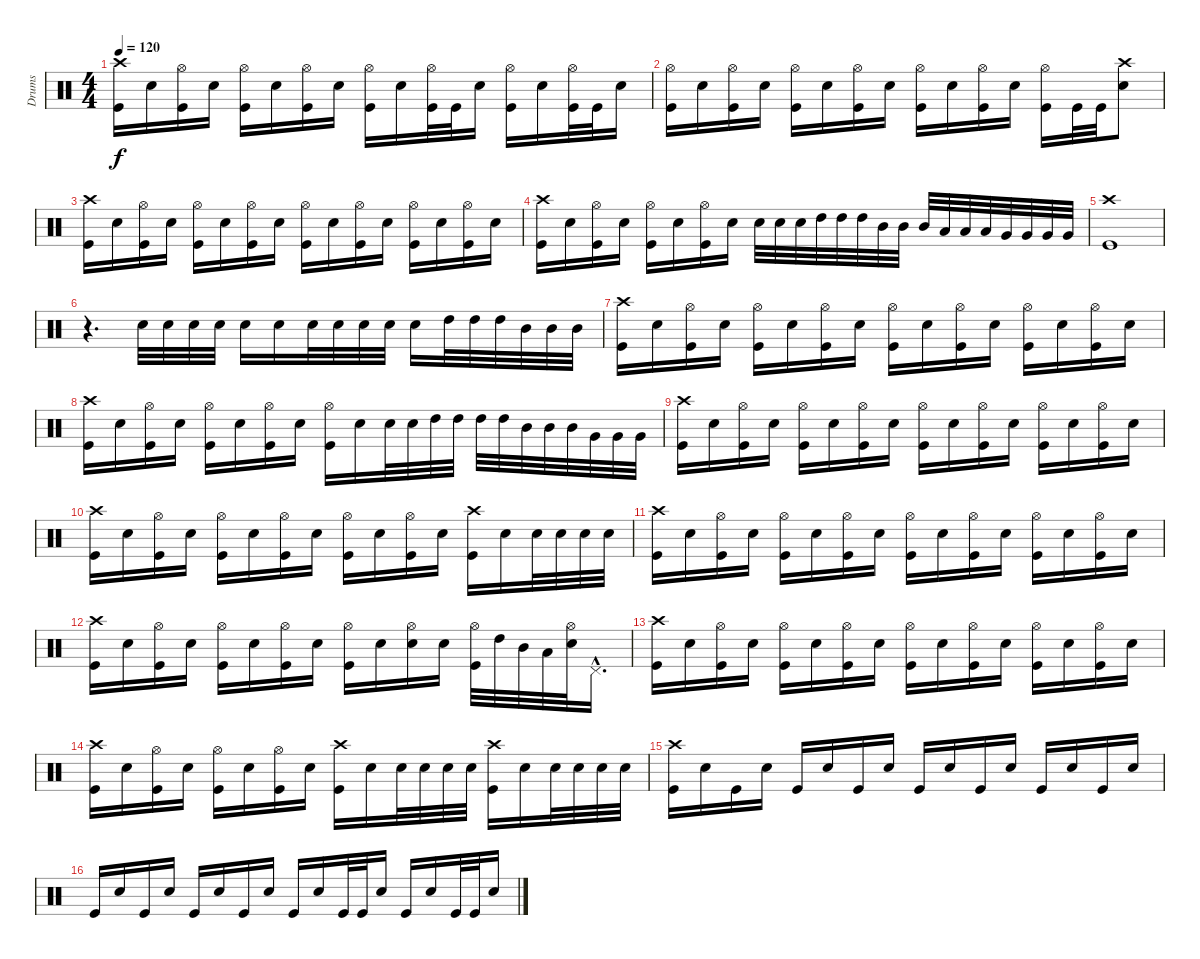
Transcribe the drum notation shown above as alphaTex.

\track ("Drums" "Drums") {instrument percussion}
\staff {score}
\articulation defaults
\ts (4 4)
\tempo 120
\clef neutral
\ks c
("Crash high (hit)" "Kick (hit)").16{dy f} "Electric Snare (hit)".16 ("Hi-Hat (open)" "Kick (hit)").16 "Electric Snare (hit)".16 ("Hi-Hat (open)" "Kick (hit)").16 "Electric Snare (hit)".16 ("Hi-Hat (open)" "Kick (hit)").16 "Electric Snare (hit)".16 ("Hi-Hat (open)" "Kick (hit)").16 "Electric Snare (hit)".16 ("Hi-Hat (open)" "Kick (hit)").32 "Kick (hit)".32 "Electric Snare (hit)".16 ("Hi-Hat (open)" "Kick (hit)").16 "Electric Snare (hit)".16 ("Hi-Hat (open)" "Kick (hit)").32 "Kick (hit)".32 "Electric Snare (hit)".16 |
("Hi-Hat (open)" "Kick (hit)").16 "Electric Snare (hit)".16 ("Hi-Hat (open)" "Kick (hit)").16 "Electric Snare (hit)".16 ("Hi-Hat (open)" "Kick (hit)").16 "Electric Snare (hit)".16 ("Hi-Hat (open)" "Kick (hit)").16 "Electric Snare (hit)".16 ("Hi-Hat (open)" "Kick (hit)").16 "Electric Snare (hit)".16 ("Hi-Hat (open)" "Kick (hit)").16 "Electric Snare (hit)".16 ("Hi-Hat (open)" "Kick (hit)").16 "Kick (hit)".32 "Kick (hit)".32 ("Crash high (hit)" "Electric Snare (hit)").8 |
("Crash high (hit)" "Kick (hit)").16 "Electric Snare (hit)".16 ("Hi-Hat (open)" "Kick (hit)").16 "Electric Snare (hit)".16 ("Hi-Hat (open)" "Kick (hit)").16 "Electric Snare (hit)".16 ("Hi-Hat (open)" "Kick (hit)").16 "Electric Snare (hit)".16 ("Hi-Hat (open)" "Kick (hit)").16 "Electric Snare (hit)".16 ("Hi-Hat (open)" "Kick (hit)").16 "Electric Snare (hit)".16 ("Hi-Hat (open)" "Kick (hit)").16 "Electric Snare (hit)".16 ("Hi-Hat (open)" "Kick (hit)").16 "Electric Snare (hit)".16 |
("Crash high (hit)" "Kick (hit)").16 "Electric Snare (hit)".16 ("Hi-Hat (open)" "Kick (hit)").16 "Electric Snare (hit)".16 ("Hi-Hat (open)" "Kick (hit)").16 "Electric Snare (hit)".16 ("Hi-Hat (open)" "Kick (hit)").16 "Electric Snare (hit)".16 "Electric Snare (hit)".32 "Electric Snare (hit)".32 "Electric Snare (hit)".32 "High Tom (hit)".32 "High Tom (hit)".32 "High Tom (hit)".32 "Mid Tom (hit)".32 "Mid Tom (hit)".32 "Mid Tom (hit)".32 "Low Tom (hit)".32 "Low Tom (hit)".32 "Low Tom (hit)".32 "Very Low Tom (hit)".32 "Very Low Tom (hit)".32 "Very Low Tom (hit)".32 "Very Low Tom (hit)".32 |
("Crash high (hit)" "Kick (hit)").1 |
r.4{d} "Electric Snare (hit)".32 "Electric Snare (hit)".32 "Electric Snare (hit)".32 "Electric Snare (hit)".32 "Electric Snare (hit)".16 "Electric Snare (hit)".16 "Electric Snare (hit)".32 "Electric Snare (hit)".32 "Electric Snare (hit)".32 "Electric Snare (hit)".32 "Electric Snare (hit)".16 "High Tom (hit)".32 "High Tom (hit)".32 "High Tom (hit)".32 "Mid Tom (hit)".32 "Mid Tom (hit)".32 "Mid Tom (hit)".32 |
("Crash high (hit)" "Kick (hit)").16 "Electric Snare (hit)".16 ("Hi-Hat (open)" "Kick (hit)").16 "Electric Snare (hit)".16 ("Hi-Hat (open)" "Kick (hit)").16 "Electric Snare (hit)".16 ("Hi-Hat (open)" "Kick (hit)").16 "Electric Snare (hit)".16 ("Hi-Hat (open)" "Kick (hit)").16 "Electric Snare (hit)".16 ("Hi-Hat (open)" "Kick (hit)").16 "Electric Snare (hit)".16 ("Hi-Hat (open)" "Kick (hit)").16 "Electric Snare (hit)".16 ("Hi-Hat (open)" "Kick (hit)").16 "Electric Snare (hit)".16 |
("Crash high (hit)" "Kick (hit)").16 "Electric Snare (hit)".16 ("Hi-Hat (open)" "Kick (hit)").16 "Electric Snare (hit)".16 ("Hi-Hat (open)" "Kick (hit)").16 "Electric Snare (hit)".16 ("Hi-Hat (open)" "Kick (hit)").16 "Electric Snare (hit)".16 ("Hi-Hat (open)" "Kick (hit)").16 "Electric Snare (hit)".16 "Electric Snare (hit)".32 "Electric Snare (hit)".32 "High Tom (hit)".32 "High Tom (hit)".32 "High Tom (hit)".32 "High Tom (hit)".32 "Mid Tom (hit)".32 "Mid Tom (hit)".32 "Mid Tom (hit)".32 "Very Low Tom (hit)".32 "Very Low Tom (hit)".32 "Very Low Tom (hit)".32 |
("Crash high (hit)" "Kick (hit)").16 "Electric Snare (hit)".16 ("Hi-Hat (open)" "Kick (hit)").16 "Electric Snare (hit)".16 ("Hi-Hat (open)" "Kick (hit)").16 "Electric Snare (hit)".16 ("Hi-Hat (open)" "Kick (hit)").16 "Electric Snare (hit)".16 ("Hi-Hat (open)" "Kick (hit)").16 "Electric Snare (hit)".16 ("Hi-Hat (open)" "Kick (hit)").16 "Electric Snare (hit)".16 ("Hi-Hat (open)" "Kick (hit)").16 "Electric Snare (hit)".16 ("Hi-Hat (open)" "Kick (hit)").16 "Electric Snare (hit)".16 |
("Crash high (hit)" "Kick (hit)").16 "Electric Snare (hit)".16 ("Hi-Hat (open)" "Kick (hit)").16 "Electric Snare (hit)".16 ("Hi-Hat (open)" "Kick (hit)").16 "Electric Snare (hit)".16 ("Hi-Hat (open)" "Kick (hit)").16 "Electric Snare (hit)".16 ("Hi-Hat (open)" "Kick (hit)").16 "Electric Snare (hit)".16 ("Hi-Hat (open)" "Kick (hit)").16 "Electric Snare (hit)".16 ("Crash high (hit)" "Kick (hit)").16 "Electric Snare (hit)".16 "Electric Snare (hit)".32 "Electric Snare (hit)".32 "Electric Snare (hit)".32 "Electric Snare (hit)".32 |
("Crash high (hit)" "Kick (hit)").16 "Electric Snare (hit)".16 ("Hi-Hat (open)" "Kick (hit)").16 "Electric Snare (hit)".16 ("Hi-Hat (open)" "Kick (hit)").16 "Electric Snare (hit)".16 ("Hi-Hat (open)" "Kick (hit)").16 "Electric Snare (hit)".16 ("Hi-Hat (open)" "Kick (hit)").16 "Electric Snare (hit)".16 ("Hi-Hat (open)" "Kick (hit)").16 "Electric Snare (hit)".16 ("Hi-Hat (open)" "Kick (hit)").16 "Electric Snare (hit)".16 ("Hi-Hat (open)" "Kick (hit)").16 "Electric Snare (hit)".16 |
("Crash high (hit)" "Kick (hit)").16 "Electric Snare (hit)".16 ("Hi-Hat (open)" "Kick (hit)").16 "Electric Snare (hit)".16 ("Hi-Hat (open)" "Kick (hit)").16 "Electric Snare (hit)".16 ("Hi-Hat (open)" "Kick (hit)").16 "Electric Snare (hit)".16 ("Hi-Hat (open)" "Kick (hit)").16 "Electric Snare (hit)".16 ("Hi-Hat (open)" "Electric Snare (hit)").16 "Electric Snare (hit)".16 ("Hi-Hat (open)" "Kick (hit)").32 "High Tom (hit)".32 "Mid Tom (hit)".32 "Low Tom (hit)".32 ("Hi-Hat (open)" "Electric Snare (hit)").32 "Pedal Hi-Hat (hit)"{hac}.16{d} |
("Crash high (hit)" "Kick (hit)").16 "Electric Snare (hit)".16 ("Hi-Hat (open)" "Kick (hit)").16 "Electric Snare (hit)".16 ("Hi-Hat (open)" "Kick (hit)").16 "Electric Snare (hit)".16 ("Hi-Hat (open)" "Kick (hit)").16 "Electric Snare (hit)".16 ("Hi-Hat (open)" "Kick (hit)").16 "Electric Snare (hit)".16 ("Hi-Hat (open)" "Kick (hit)").16 "Electric Snare (hit)".16 ("Hi-Hat (open)" "Kick (hit)").16 "Electric Snare (hit)".16 ("Hi-Hat (open)" "Kick (hit)").16 "Electric Snare (hit)".16 |
("Crash high (hit)" "Kick (hit)").16 "Electric Snare (hit)".16 ("Hi-Hat (open)" "Kick (hit)").16 "Electric Snare (hit)".16 ("Hi-Hat (open)" "Kick (hit)").16 "Electric Snare (hit)".16 ("Hi-Hat (open)" "Kick (hit)").16 "Electric Snare (hit)".16 ("Crash high (hit)" "Kick (hit)").16 "Electric Snare (hit)".16 "Electric Snare (hit)".32 "Electric Snare (hit)".32 "Electric Snare (hit)".32 "Electric Snare (hit)".32 ("Crash high (hit)" "Kick (hit)").16 "Electric Snare (hit)".16 "Electric Snare (hit)".32 "Electric Snare (hit)".32 "Electric Snare (hit)".32 "Electric Snare (hit)".32 |
("Crash high (hit)" "Kick (hit)").16 "Electric Snare (hit)".16 "Kick (hit)".16 "Electric Snare (hit)".16 "Kick (hit)".16 "Electric Snare (hit)".16 "Kick (hit)".16 "Electric Snare (hit)".16 "Kick (hit)".16 "Electric Snare (hit)".16 "Kick (hit)".16 "Electric Snare (hit)".16 "Kick (hit)".16 "Electric Snare (hit)".16 "Kick (hit)".16 "Electric Snare (hit)".16 |
"Kick (hit)".16 "Electric Snare (hit)".16 "Kick (hit)".16 "Electric Snare (hit)".16 "Kick (hit)".16 "Electric Snare (hit)".16 "Kick (hit)".16 "Electric Snare (hit)".16 "Kick (hit)".16 "Electric Snare (hit)".16 "Kick (hit)".32 "Kick (hit)".32 "Electric Snare (hit)".16 "Kick (hit)".16 "Electric Snare (hit)".16 "Kick (hit)".32 "Kick (hit)".32 "Electric Snare (hit)".16
